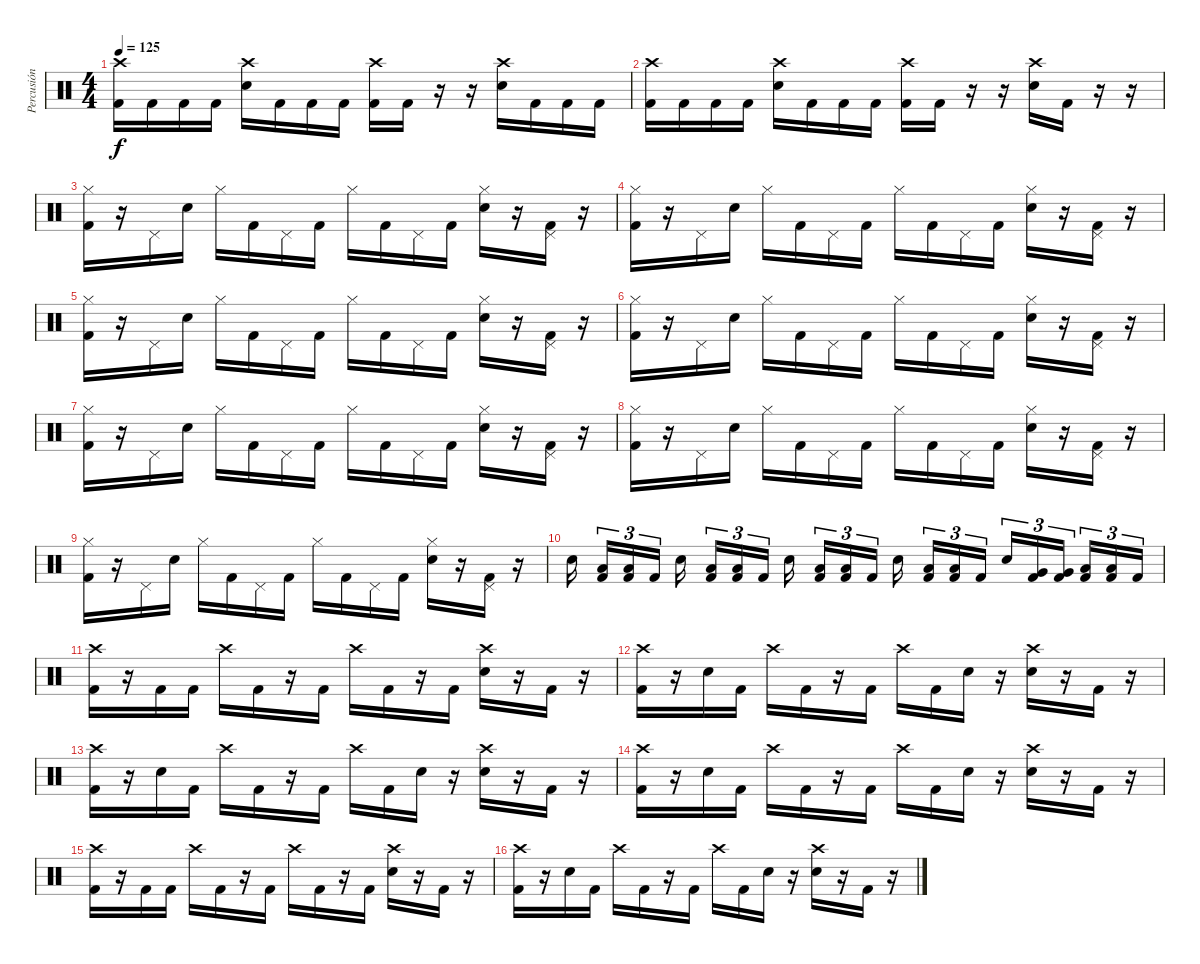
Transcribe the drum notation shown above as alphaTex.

\track ("Percusión" "Percusión") {instrument percussion}
\staff {score}
\articulation defaults
\ts (4 4)
\tempo 125
\clef neutral
\ks c
("Crash high (hit)" "Kick (hit) 2").16{dy f} "Kick (hit) 2".16 "Kick (hit) 2".16 "Kick (hit) 2".16 ("Crash high (hit)" "Electric Snare (hit)").16 "Kick (hit) 2".16 "Kick (hit) 2".16 "Kick (hit) 2".16 ("Crash high (hit)" "Kick (hit) 2").16 "Kick (hit) 2".16 r.16 r.16 ("Crash high (hit)" "Electric Snare (hit)").16 "Kick (hit) 2".16 "Kick (hit) 2".16 "Kick (hit) 2".16 |
("Crash high (hit)" "Kick (hit) 2").16 "Kick (hit) 2".16 "Kick (hit) 2".16 "Kick (hit) 2".16 ("Crash high (hit)" "Electric Snare (hit)").16 "Kick (hit) 2".16 "Kick (hit) 2".16 "Kick (hit) 2".16 ("Crash high (hit)" "Kick (hit) 2").16 "Kick (hit) 2".16 r.16 r.16 ("Crash high (hit)" "Electric Snare (hit)").16 "Kick (hit) 2".16 r.16 r.16 |
("Hi-Hat (closed)" "Kick (hit) 2").16 r.16 "Pedal Hi-Hat (hit)".16 "Electric Snare (hit)".16 "Hi-Hat (closed)".16 "Kick (hit) 2".16 "Pedal Hi-Hat (hit)".16 "Kick (hit) 2".16 "Hi-Hat (closed)".16 "Kick (hit) 2".16 "Pedal Hi-Hat (hit)".16 "Kick (hit) 2".16 ("Hi-Hat (closed)" "Electric Snare (hit)").16 r.16 ("Pedal Hi-Hat (hit)" "Kick (hit) 2").16 r.16 |
("Hi-Hat (closed)" "Kick (hit) 2").16 r.16 "Pedal Hi-Hat (hit)".16 "Electric Snare (hit)".16 "Hi-Hat (closed)".16 "Kick (hit) 2".16 "Pedal Hi-Hat (hit)".16 "Kick (hit) 2".16 "Hi-Hat (closed)".16 "Kick (hit) 2".16 "Pedal Hi-Hat (hit)".16 "Kick (hit) 2".16 ("Hi-Hat (closed)" "Electric Snare (hit)").16 r.16 ("Pedal Hi-Hat (hit)" "Kick (hit) 2").16 r.16 |
("Hi-Hat (closed)" "Kick (hit) 2").16 r.16 "Pedal Hi-Hat (hit)".16 "Electric Snare (hit)".16 "Hi-Hat (closed)".16 "Kick (hit) 2".16 "Pedal Hi-Hat (hit)".16 "Kick (hit) 2".16 "Hi-Hat (closed)".16 "Kick (hit) 2".16 "Pedal Hi-Hat (hit)".16 "Kick (hit) 2".16 ("Hi-Hat (closed)" "Electric Snare (hit)").16 r.16 ("Pedal Hi-Hat (hit)" "Kick (hit) 2").16 r.16 |
("Hi-Hat (closed)" "Kick (hit) 2").16 r.16 "Pedal Hi-Hat (hit)".16 "Electric Snare (hit)".16 "Hi-Hat (closed)".16 "Kick (hit) 2".16 "Pedal Hi-Hat (hit)".16 "Kick (hit) 2".16 "Hi-Hat (closed)".16 "Kick (hit) 2".16 "Pedal Hi-Hat (hit)".16 "Kick (hit) 2".16 ("Hi-Hat (closed)" "Electric Snare (hit)").16 r.16 ("Pedal Hi-Hat (hit)" "Kick (hit) 2").16 r.16 |
("Hi-Hat (closed)" "Kick (hit) 2").16 r.16 "Pedal Hi-Hat (hit)".16 "Electric Snare (hit)".16 "Hi-Hat (closed)".16 "Kick (hit) 2".16 "Pedal Hi-Hat (hit)".16 "Kick (hit) 2".16 "Hi-Hat (closed)".16 "Kick (hit) 2".16 "Pedal Hi-Hat (hit)".16 "Kick (hit) 2".16 ("Hi-Hat (closed)" "Electric Snare (hit)").16 r.16 ("Pedal Hi-Hat (hit)" "Kick (hit) 2").16 r.16 |
("Hi-Hat (closed)" "Kick (hit) 2").16 r.16 "Pedal Hi-Hat (hit)".16 "Electric Snare (hit)".16 "Hi-Hat (closed)".16 "Kick (hit) 2".16 "Pedal Hi-Hat (hit)".16 "Kick (hit) 2".16 "Hi-Hat (closed)".16 "Kick (hit) 2".16 "Pedal Hi-Hat (hit)".16 "Kick (hit) 2".16 ("Hi-Hat (closed)" "Electric Snare (hit)").16 r.16 ("Pedal Hi-Hat (hit)" "Kick (hit) 2").16 r.16 |
("Hi-Hat (closed)" "Kick (hit) 2").16 r.16 "Pedal Hi-Hat (hit)".16 "Electric Snare (hit)".16 "Hi-Hat (closed)".16 "Kick (hit) 2".16 "Pedal Hi-Hat (hit)".16 "Kick (hit) 2".16 "Hi-Hat (closed)".16 "Kick (hit) 2".16 "Pedal Hi-Hat (hit)".16 "Kick (hit) 2".16 ("Hi-Hat (closed)" "Electric Snare (hit)").16 r.16 ("Pedal Hi-Hat (hit)" "Kick (hit) 2").16 r.16 |
"Electric Snare (hit)".16{beam splitsecondary} ("Low Floor Tom (hit)" "Kick (hit) 2").16{tu (3 2)} ("Low Floor Tom (hit)" "Kick (hit) 2").16{tu (3 2)} "Kick (hit) 2".16{tu (3 2) beam splitsecondary} "Electric Snare (hit)".16 ("Low Floor Tom (hit)" "Kick (hit) 2").16{tu (3 2)} ("Low Floor Tom (hit)" "Kick (hit) 2").16{tu (3 2)} "Kick (hit) 2".16{tu (3 2) beam splitsecondary} "Electric Snare (hit)".16{beam splitsecondary} ("Low Floor Tom (hit)" "Kick (hit) 2").16{tu (3 2)} ("Low Floor Tom (hit)" "Kick (hit) 2").16{tu (3 2)} "Kick (hit) 2".16{tu (3 2) beam splitsecondary} "Electric Snare (hit)".16{beam splitsecondary} ("Low Floor Tom (hit)" "Kick (hit) 2").16{tu (3 2)} ("Low Floor Tom (hit)" "Kick (hit) 2").16{tu (3 2)} "Kick (hit) 2".16{tu (3 2)} "Electric Snare (hit)".16{tu (3 2)} ("Very Low Tom (hit)" "Kick (hit) 2").16{tu (3 2)} ("Very Low Tom (hit)" "Kick (hit) 2").16{tu (3 2) beam splitsecondary} ("Low Floor Tom (hit)" "Kick (hit) 2").16{tu (3 2)} ("Low Floor Tom (hit)" "Kick (hit) 2").16{tu (3 2)} "Kick (hit) 2".16{tu (3 2)} |
("Crash high (hit)" "Kick (hit) 2").16 r.16 "Kick (hit) 2".16 "Kick (hit) 2".16 "Crash high (hit)".16 "Kick (hit) 2".16 r.16 "Kick (hit) 2".16 "Crash high (hit)".16 "Kick (hit) 2".16 r.16 "Kick (hit) 2".16 ("Crash high (hit)" "Electric Snare (hit)").16 r.16 "Kick (hit) 2".16 r.16 |
("Crash high (hit)" "Kick (hit) 2").16 r.16 "Electric Snare (hit)".16 "Kick (hit) 2".16 "Crash high (hit)".16 "Kick (hit) 2".16 r.16 "Kick (hit) 2".16 "Crash high (hit)".16 "Kick (hit) 2".16 "Electric Snare (hit)".16 r.16 ("Crash high (hit)" "Electric Snare (hit)").16 r.16 "Kick (hit) 2".16 r.16 |
("Crash high (hit)" "Kick (hit) 2").16 r.16 "Electric Snare (hit)".16 "Kick (hit) 2".16 "Crash high (hit)".16 "Kick (hit) 2".16 r.16 "Kick (hit) 2".16 "Crash high (hit)".16 "Kick (hit) 2".16 "Electric Snare (hit)".16 r.16 ("Crash high (hit)" "Electric Snare (hit)").16 r.16 "Kick (hit) 2".16 r.16 |
("Crash high (hit)" "Kick (hit) 2").16 r.16 "Electric Snare (hit)".16 "Kick (hit) 2".16 "Crash high (hit)".16 "Kick (hit) 2".16 r.16 "Kick (hit) 2".16 "Crash high (hit)".16 "Kick (hit) 2".16 "Electric Snare (hit)".16 r.16 ("Crash high (hit)" "Electric Snare (hit)").16 r.16 "Kick (hit) 2".16 r.16 |
("Crash high (hit)" "Kick (hit) 2").16 r.16 "Kick (hit) 2".16 "Kick (hit) 2".16 "Crash high (hit)".16 "Kick (hit) 2".16 r.16 "Kick (hit) 2".16 "Crash high (hit)".16 "Kick (hit) 2".16 r.16 "Kick (hit) 2".16 ("Crash high (hit)" "Electric Snare (hit)").16 r.16 "Kick (hit) 2".16 r.16 |
("Crash high (hit)" "Kick (hit) 2").16 r.16 "Electric Snare (hit)".16 "Kick (hit) 2".16 "Crash high (hit)".16 "Kick (hit) 2".16 r.16 "Kick (hit) 2".16 "Crash high (hit)".16 "Kick (hit) 2".16 "Electric Snare (hit)".16 r.16 ("Crash high (hit)" "Electric Snare (hit)").16 r.16 "Kick (hit) 2".16 r.16
